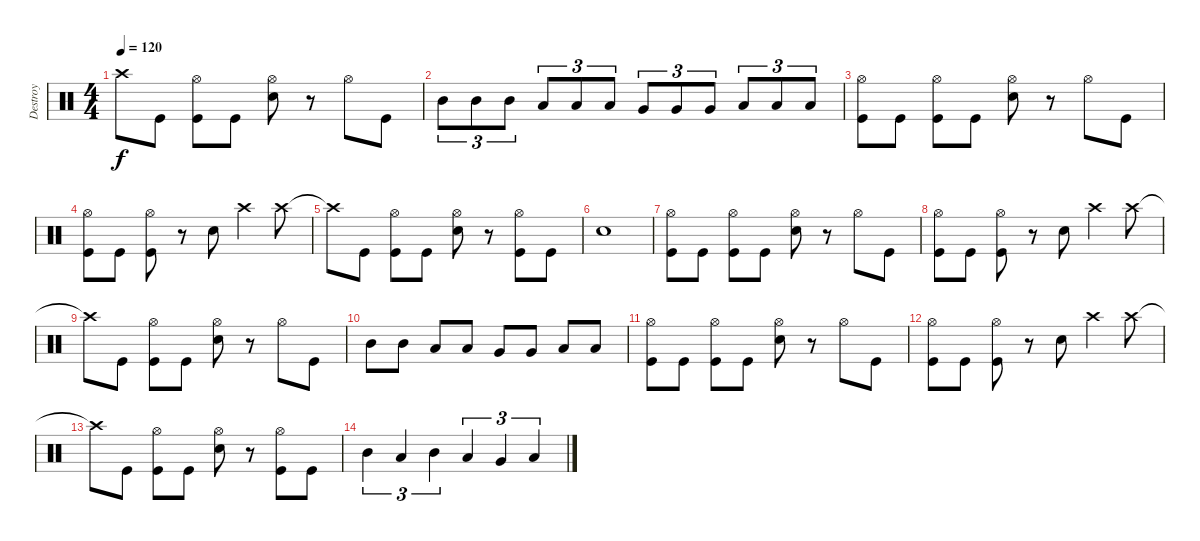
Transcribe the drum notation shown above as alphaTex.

\track ("Destroy" "Destroy") {instrument percussion}
\staff {score}
\articulation defaults
\ts (4 4)
\tempo 120
\clef neutral
\ks c "Crash high (hit)"{t}.8{dy f} "Kick (hit)".8
("Hi-Hat (open)" "Kick (hit)").8 "Kick (hit)".8 ("Hi-Hat (open)" "Snare (hit) 2").8 r.8 "Hi-Hat (open)".8 "Kick (hit)".8 |
"Mid Tom (hit)".8{tu (3 2)} "Mid Tom (hit)".8{tu (3 2)} "Mid Tom (hit)".8{tu (3 2)} "Low Tom (hit)".8{tu (3 2)} "Low Tom (hit)".8{tu (3 2)} "Low Tom (hit)".8{tu (3 2)} "Very Low Tom (hit)".8{tu (3 2)} "Very Low Tom (hit)".8{tu (3 2)} "Very Low Tom (hit)".8{tu (3 2)} "Low Floor Tom (hit)".8{tu (3 2)} "Low Floor Tom (hit)".8{tu (3 2)} "Low Floor Tom (hit)".8{tu (3 2)} |
("Hi-Hat (open)" "Kick (hit)").8 "Kick (hit)".8 ("Hi-Hat (open)" "Kick (hit)").8 "Kick (hit)".8 ("Hi-Hat (open)" "Snare (hit) 2").8 r.8 "Hi-Hat (open)".8 "Kick (hit)".8 |
("Hi-Hat (open)" "Kick (hit)").8 "Kick (hit)".8 ("Hi-Hat (open)" "Kick (hit)").8 r.8 "Snare (hit) 2".8 "Crash high (hit)".4 "Crash high (hit)".8 |
"Crash high (hit)"{t}.8 "Kick (hit)".8 ("Hi-Hat (open)" "Kick (hit)").8 "Kick (hit)".8 ("Hi-Hat (open)" "Snare (hit) 2").8 r.8 ("Hi-Hat (open)" "Kick (hit)").8 "Kick (hit)".8 |
"Snare (hit) 2".1 |
("Hi-Hat (open)" "Kick (hit)").8 "Kick (hit)".8 ("Hi-Hat (open)" "Kick (hit)").8 "Kick (hit)".8 ("Hi-Hat (open)" "Snare (hit) 2").8 r.8 "Hi-Hat (open)".8 "Kick (hit)".8 |
("Hi-Hat (open)" "Kick (hit)").8 "Kick (hit)".8 ("Hi-Hat (open)" "Kick (hit)").8 r.8 "Snare (hit) 2".8 "Crash high (hit)".4 "Crash high (hit)".8 |
"Crash high (hit)"{t}.8 "Kick (hit)".8 ("Hi-Hat (open)" "Kick (hit)").8 "Kick (hit)".8 ("Hi-Hat (open)" "Snare (hit) 2").8 r.8 "Hi-Hat (open)".8 "Kick (hit)".8 |
"Mid Tom (hit)".8 "Mid Tom (hit)".8 "Low Tom (hit)".8 "Low Tom (hit)".8 "Very Low Tom (hit)".8 "Very Low Tom (hit)".8 "Low Floor Tom (hit)".8 "Low Floor Tom (hit)".8 |
("Hi-Hat (open)" "Kick (hit)").8 "Kick (hit)".8 ("Hi-Hat (open)" "Kick (hit)").8 "Kick (hit)".8 ("Hi-Hat (open)" "Snare (hit) 2").8 r.8 "Hi-Hat (open)".8 "Kick (hit)".8 |
("Hi-Hat (open)" "Kick (hit)").8 "Kick (hit)".8 ("Hi-Hat (open)" "Kick (hit)").8 r.8 "Snare (hit) 2".8 "Crash high (hit)".4 "Crash high (hit)".8 |
"Crash high (hit)"{t}.8 "Kick (hit)".8 ("Hi-Hat (open)" "Kick (hit)").8 "Kick (hit)".8 ("Hi-Hat (open)" "Snare (hit) 2").8 r.8 ("Hi-Hat (open)" "Kick (hit)").8 "Kick (hit)".8 |
"Mid Tom (hit)".4{tu (3 2)} "Low Tom (hit)".4{tu (3 2)} "Mid Tom (hit)".4{tu (3 2)} "Low Tom (hit)".4{tu (3 2)} "Very Low Tom (hit)".4{tu (3 2)} "Low Floor Tom (hit)".4{tu (3 2)}
